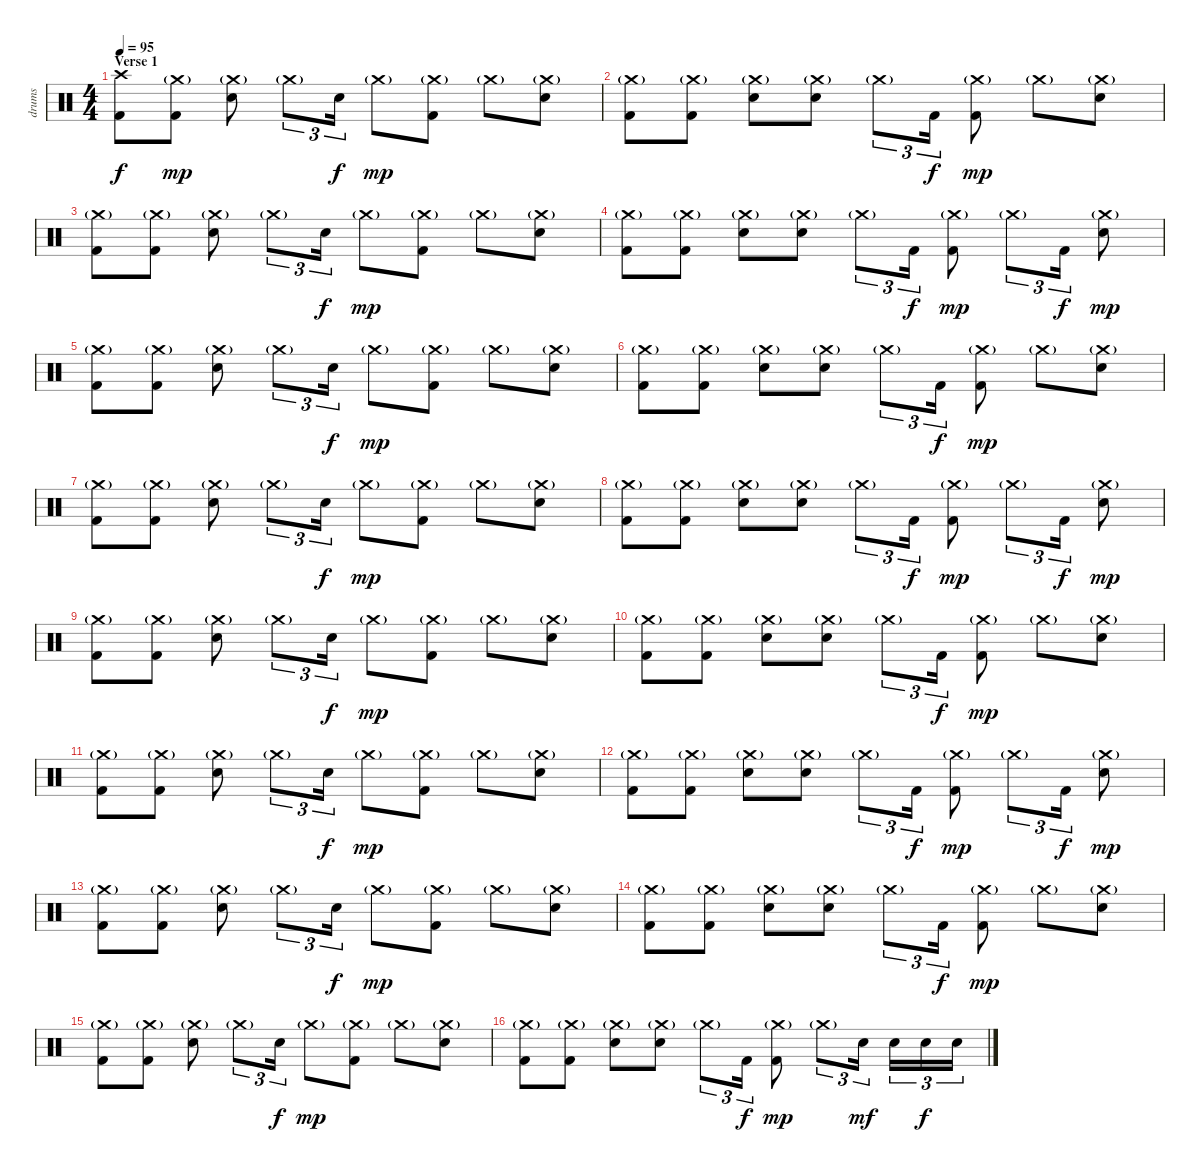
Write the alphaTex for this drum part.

\track ("drums" "drums") {instrument percussion}
\staff {score}
\articulation defaults
\ts (4 4)
\section ("" "Verse 1")
\tempo 95
\clef neutral
\ks c
("Crash high (hit)" "Kick (hit) 2").8{dy f} ("Crash medium (hit)"{g} "Kick (hit) 2").8{dy mp} ("Crash medium (hit)"{g} "Electric Snare (hit)").8 "Crash medium (hit)"{g}.8{tu (3 2)} "Electric Snare (hit)".16{tu (3 2) dy f} "Crash medium (hit)"{g}.8{dy mp} ("Crash medium (hit)"{g} "Kick (hit) 2").8 "Crash medium (hit)"{g}.8 ("Crash medium (hit)"{g} "Electric Snare (hit)").8 |
("Crash medium (hit)"{g} "Kick (hit) 2").8 ("Crash medium (hit)"{g} "Kick (hit) 2").8 ("Crash medium (hit)"{g} "Electric Snare (hit)").8 ("Crash medium (hit)"{g} "Electric Snare (hit)").8 "Crash medium (hit)"{g}.8{tu (3 2)} "Kick (hit) 2".16{tu (3 2) dy f} ("Crash medium (hit)"{g} "Kick (hit) 2").8{dy mp} "Crash medium (hit)"{g}.8 ("Crash medium (hit)"{g} "Electric Snare (hit)").8 |
("Crash medium (hit)"{g} "Kick (hit) 2").8 ("Crash medium (hit)"{g} "Kick (hit) 2").8 ("Crash medium (hit)"{g} "Electric Snare (hit)").8 "Crash medium (hit)"{g}.8{tu (3 2)} "Electric Snare (hit)".16{tu (3 2) dy f} "Crash medium (hit)"{g}.8{dy mp} ("Crash medium (hit)"{g} "Kick (hit) 2").8 "Crash medium (hit)"{g}.8 ("Crash medium (hit)"{g} "Electric Snare (hit)").8 |
("Crash medium (hit)"{g} "Kick (hit) 2").8 ("Crash medium (hit)"{g} "Kick (hit) 2").8 ("Crash medium (hit)"{g} "Electric Snare (hit)").8 ("Crash medium (hit)"{g} "Electric Snare (hit)").8 "Crash medium (hit)"{g}.8{tu (3 2)} "Kick (hit) 2".16{tu (3 2) dy f} ("Crash medium (hit)"{g} "Kick (hit) 2").8{dy mp} "Crash medium (hit)"{g}.8{tu (3 2)} "Kick (hit) 2".16{tu (3 2) dy f} ("Crash medium (hit)"{g} "Electric Snare (hit)").8{dy mp} |
("Crash medium (hit)"{g} "Kick (hit) 2").8 ("Crash medium (hit)"{g} "Kick (hit) 2").8 ("Crash medium (hit)"{g} "Electric Snare (hit)").8 "Crash medium (hit)"{g}.8{tu (3 2)} "Electric Snare (hit)".16{tu (3 2) dy f} "Crash medium (hit)"{g}.8{dy mp} ("Crash medium (hit)"{g} "Kick (hit) 2").8 "Crash medium (hit)"{g}.8 ("Crash medium (hit)"{g} "Electric Snare (hit)").8 |
("Crash medium (hit)"{g} "Kick (hit) 2").8 ("Crash medium (hit)"{g} "Kick (hit) 2").8 ("Crash medium (hit)"{g} "Electric Snare (hit)").8 ("Crash medium (hit)"{g} "Electric Snare (hit)").8 "Crash medium (hit)"{g}.8{tu (3 2)} "Kick (hit) 2".16{tu (3 2) dy f} ("Crash medium (hit)"{g} "Kick (hit) 2").8{dy mp} "Crash medium (hit)"{g}.8 ("Crash medium (hit)"{g} "Electric Snare (hit)").8 |
("Crash medium (hit)"{g} "Kick (hit) 2").8 ("Crash medium (hit)"{g} "Kick (hit) 2").8 ("Crash medium (hit)"{g} "Electric Snare (hit)").8 "Crash medium (hit)"{g}.8{tu (3 2)} "Electric Snare (hit)".16{tu (3 2) dy f} "Crash medium (hit)"{g}.8{dy mp} ("Crash medium (hit)"{g} "Kick (hit) 2").8 "Crash medium (hit)"{g}.8 ("Crash medium (hit)"{g} "Electric Snare (hit)").8 |
("Crash medium (hit)"{g} "Kick (hit) 2").8 ("Crash medium (hit)"{g} "Kick (hit) 2").8 ("Crash medium (hit)"{g} "Electric Snare (hit)").8 ("Crash medium (hit)"{g} "Electric Snare (hit)").8 "Crash medium (hit)"{g}.8{tu (3 2)} "Kick (hit) 2".16{tu (3 2) dy f} ("Crash medium (hit)"{g} "Kick (hit) 2").8{dy mp} "Crash medium (hit)"{g}.8{tu (3 2)} "Kick (hit) 2".16{tu (3 2) dy f} ("Crash medium (hit)"{g} "Electric Snare (hit)").8{dy mp} |
("Crash medium (hit)"{g} "Kick (hit) 2").8 ("Crash medium (hit)"{g} "Kick (hit) 2").8 ("Crash medium (hit)"{g} "Electric Snare (hit)").8 "Crash medium (hit)"{g}.8{tu (3 2)} "Electric Snare (hit)".16{tu (3 2) dy f} "Crash medium (hit)"{g}.8{dy mp} ("Crash medium (hit)"{g} "Kick (hit) 2").8 "Crash medium (hit)"{g}.8 ("Crash medium (hit)"{g} "Electric Snare (hit)").8 |
("Crash medium (hit)"{g} "Kick (hit) 2").8 ("Crash medium (hit)"{g} "Kick (hit) 2").8 ("Crash medium (hit)"{g} "Electric Snare (hit)").8 ("Crash medium (hit)"{g} "Electric Snare (hit)").8 "Crash medium (hit)"{g}.8{tu (3 2)} "Kick (hit) 2".16{tu (3 2) dy f} ("Crash medium (hit)"{g} "Kick (hit) 2").8{dy mp} "Crash medium (hit)"{g}.8 ("Crash medium (hit)"{g} "Electric Snare (hit)").8 |
("Crash medium (hit)"{g} "Kick (hit) 2").8 ("Crash medium (hit)"{g} "Kick (hit) 2").8 ("Crash medium (hit)"{g} "Electric Snare (hit)").8 "Crash medium (hit)"{g}.8{tu (3 2)} "Electric Snare (hit)".16{tu (3 2) dy f} "Crash medium (hit)"{g}.8{dy mp} ("Crash medium (hit)"{g} "Kick (hit) 2").8 "Crash medium (hit)"{g}.8 ("Crash medium (hit)"{g} "Electric Snare (hit)").8 |
("Crash medium (hit)"{g} "Kick (hit) 2").8 ("Crash medium (hit)"{g} "Kick (hit) 2").8 ("Crash medium (hit)"{g} "Electric Snare (hit)").8 ("Crash medium (hit)"{g} "Electric Snare (hit)").8 "Crash medium (hit)"{g}.8{tu (3 2)} "Kick (hit) 2".16{tu (3 2) dy f} ("Crash medium (hit)"{g} "Kick (hit) 2").8{dy mp} "Crash medium (hit)"{g}.8{tu (3 2)} "Kick (hit) 2".16{tu (3 2) dy f} ("Crash medium (hit)"{g} "Electric Snare (hit)").8{dy mp} |
("Crash medium (hit)"{g} "Kick (hit) 2").8 ("Crash medium (hit)"{g} "Kick (hit) 2").8 ("Crash medium (hit)"{g} "Electric Snare (hit)").8 "Crash medium (hit)"{g}.8{tu (3 2)} "Electric Snare (hit)".16{tu (3 2) dy f} "Crash medium (hit)"{g}.8{dy mp} ("Crash medium (hit)"{g} "Kick (hit) 2").8 "Crash medium (hit)"{g}.8 ("Crash medium (hit)"{g} "Electric Snare (hit)").8 |
("Crash medium (hit)"{g} "Kick (hit) 2").8 ("Crash medium (hit)"{g} "Kick (hit) 2").8 ("Crash medium (hit)"{g} "Electric Snare (hit)").8 ("Crash medium (hit)"{g} "Electric Snare (hit)").8 "Crash medium (hit)"{g}.8{tu (3 2)} "Kick (hit) 2".16{tu (3 2) dy f} ("Crash medium (hit)"{g} "Kick (hit) 2").8{dy mp} "Crash medium (hit)"{g}.8 ("Crash medium (hit)"{g} "Electric Snare (hit)").8 |
("Crash medium (hit)"{g} "Kick (hit) 2").8 ("Crash medium (hit)"{g} "Kick (hit) 2").8 ("Crash medium (hit)"{g} "Electric Snare (hit)").8 "Crash medium (hit)"{g}.8{tu (3 2)} "Electric Snare (hit)".16{tu (3 2) dy f} "Crash medium (hit)"{g}.8{dy mp} ("Crash medium (hit)"{g} "Kick (hit) 2").8 "Crash medium (hit)"{g}.8 ("Crash medium (hit)"{g} "Electric Snare (hit)").8 |
("Crash medium (hit)"{g} "Kick (hit) 2").8 ("Crash medium (hit)"{g} "Kick (hit) 2").8 ("Crash medium (hit)"{g} "Electric Snare (hit)").8 ("Crash medium (hit)"{g} "Electric Snare (hit)").8 "Crash medium (hit)"{g}.8{tu (3 2)} "Kick (hit) 2".16{tu (3 2) dy f} ("Crash medium (hit)"{g} "Kick (hit) 2").8{dy mp} "Crash medium (hit)"{g}.8{tu (3 2)} "Electric Snare (hit)".16{tu (3 2) dy mf} "Electric Snare (hit)".16{tu (3 2)} "Electric Snare (hit)".16{tu (3 2) dy f} "Electric Snare (hit)".16{tu (3 2)}
